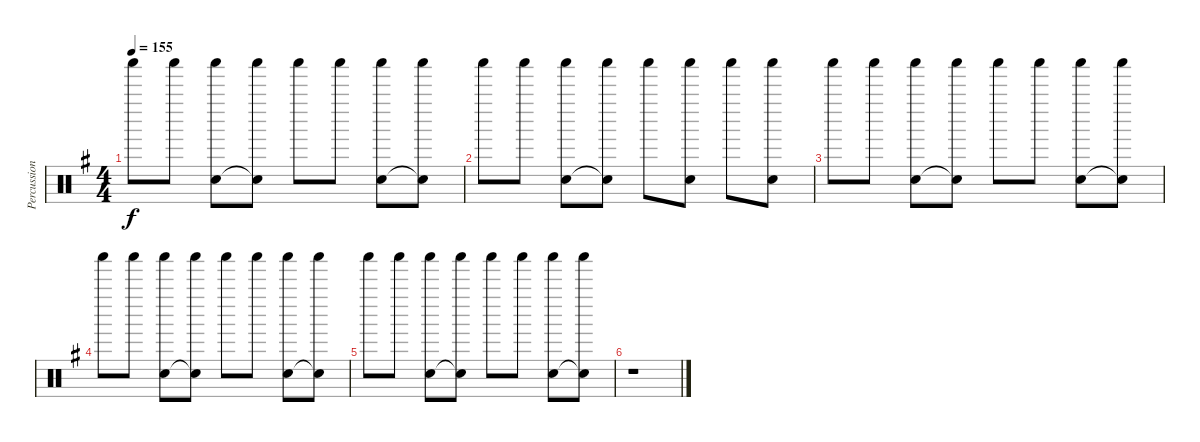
\track ("Percussion" "Percussion") {instrument percussion}
\staff {score}
\articulation defaults
\ts (4 4)
\tempo 155
\clef neutral
\ks eminor "Shaker (hit)".8{dy f} "Shaker (hit)".8
("Hand Clap (hit)" "Shaker (hit)").8 ("Snare (hit)"{t} "Shaker (hit)").8 "Shaker (hit)".8 "Shaker (hit)".8 ("Hand Clap (hit)" "Shaker (hit)").8 ("Snare (hit)"{t} "Shaker (hit)").8 |
"Shaker (hit)".8 "Shaker (hit)".8 ("Hand Clap (hit)" "Shaker (hit)").8 ("Snare (hit)"{t} "Shaker (hit)").8 "Shaker (hit)".8 ("Hand Clap (hit)" "Shaker (hit)").8 "Shaker (hit)".8 ("Hand Clap (hit)" "Shaker (hit)").8 |
"Shaker (hit)".8 "Shaker (hit)".8 ("Hand Clap (hit)" "Shaker (hit)").8 ("Snare (hit)"{t} "Shaker (hit)").8 "Shaker (hit)".8 "Shaker (hit)".8 ("Hand Clap (hit)" "Shaker (hit)").8 ("Snare (hit)"{t} "Shaker (hit)").8 |
"Shaker (hit)".8 "Shaker (hit)".8 ("Hand Clap (hit)" "Shaker (hit)").8 ("Snare (hit)"{t} "Shaker (hit)").8 "Shaker (hit)".8 "Shaker (hit)".8 ("Hand Clap (hit)" "Shaker (hit)").8 ("Snare (hit)"{t} "Shaker (hit)").8 |
"Shaker (hit)".8 "Shaker (hit)".8 ("Hand Clap (hit)" "Shaker (hit)").8 ("Snare (hit)"{t} "Shaker (hit)").8 "Shaker (hit)".8 "Shaker (hit)".8 ("Hand Clap (hit)" "Shaker (hit)").8 ("Snare (hit)"{t} "Shaker (hit)").8 |
r.1
